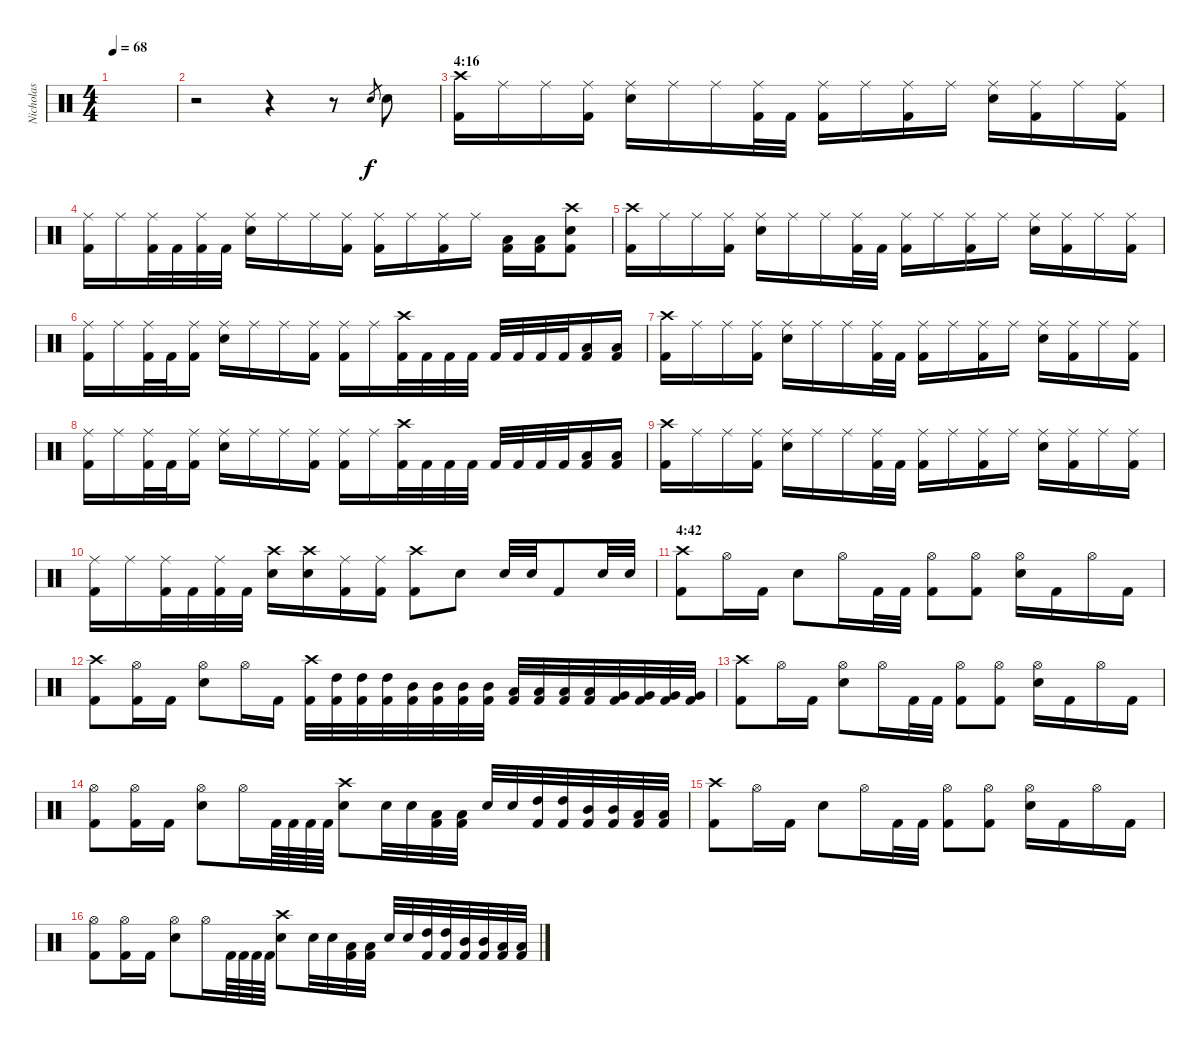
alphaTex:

\track ("Nicholas" "Nicholas") {instrument percussion}
\staff {score}
\articulation defaults
\ts (4 4)
\tempo 68
\clef neutral
\ks c
|
r.2 r.4 r.8 "Snare (hit) 2".8{gr} "Snare (hit) 2".8 |
\section ("" "4:16")
("Kick (hit) 2" "Crash high (hit)").16 "Ride (middle)".16 "Ride (middle)".16 ("Kick (hit) 2" "Ride (middle)").16 ("Snare (hit) 2" "Ride (middle)").16 "Ride (middle)".16 "Ride (middle)".16 ("Kick (hit) 2" "Ride (middle)").32 "Kick (hit) 2".32 ("Kick (hit) 2" "Ride (middle)").16 "Ride (middle)".16 ("Kick (hit) 2" "Ride (middle)").16 "Ride (middle)".16 ("Snare (hit) 2" "Ride (middle)").16 ("Kick (hit) 2" "Ride (middle)").16 "Ride (middle)".16 ("Kick (hit) 2" "Ride (middle)").16 |
("Kick (hit) 2" "Ride (middle)").16 "Ride (middle)".16 ("Kick (hit) 2" "Ride (middle)").32 "Kick (hit) 2".32 ("Kick (hit) 2" "Ride (middle)").32 "Kick (hit) 2".32 ("Snare (hit) 2" "Ride (middle)").16 "Ride (middle)".16 "Ride (middle)".16 ("Kick (hit) 2" "Ride (middle)").16 ("Kick (hit) 2" "Ride (middle)").16 "Ride (middle)".16 ("Kick (hit) 2" "Ride (middle)").16 "Ride (middle)".16 ("Kick (hit) 2" "Low Tom (hit)").16 ("Kick (hit) 2" "Low Tom (hit)").16 ("Kick (hit) 2" "Snare (hit) 2" "Crash high (hit)").8 |
("Kick (hit) 2" "Crash high (hit)").16 "Ride (middle)".16 "Ride (middle)".16 ("Kick (hit) 2" "Ride (middle)").16 ("Snare (hit) 2" "Ride (middle)").16 "Ride (middle)".16 "Ride (middle)".16 ("Kick (hit) 2" "Ride (middle)").32 "Kick (hit) 2".32 ("Kick (hit) 2" "Ride (middle)").16 "Ride (middle)".16 ("Kick (hit) 2" "Ride (middle)").16 "Ride (middle)".16 ("Snare (hit) 2" "Ride (middle)").16 ("Kick (hit) 2" "Ride (middle)").16 "Ride (middle)".16 ("Kick (hit) 2" "Ride (middle)").16 |
("Kick (hit) 2" "Ride (middle)").16 "Ride (middle)".16 ("Kick (hit) 2" "Ride (middle)").32 "Kick (hit) 2".32 ("Kick (hit) 2" "Ride (middle)").16 ("Snare (hit) 2" "Ride (middle)").16 "Ride (middle)".16 "Ride (middle)".16 ("Kick (hit) 2" "Ride (middle)").16 ("Kick (hit) 2" "Ride (middle)").16 "Ride (middle)".16 ("Kick (hit) 2" "Crash high (hit)").32 "Kick (hit) 2".32 "Kick (hit) 2".32 "Kick (hit) 2".32 "Kick (hit) 2".32 "Kick (hit) 2".32 "Kick (hit) 2".32 "Kick (hit) 2".32 ("Kick (hit) 2" "Low Tom (hit)").16 ("Kick (hit) 2" "Low Tom (hit)").16 |
("Kick (hit) 2" "Crash high (hit)").16 "Ride (middle)".16 "Ride (middle)".16 ("Kick (hit) 2" "Ride (middle)").16 ("Snare (hit) 2" "Ride (middle)").16 "Ride (middle)".16 "Ride (middle)".16 ("Kick (hit) 2" "Ride (middle)").32 "Kick (hit) 2".32 ("Kick (hit) 2" "Ride (middle)").16 "Ride (middle)".16 ("Kick (hit) 2" "Ride (middle)").16 "Ride (middle)".16 ("Snare (hit) 2" "Ride (middle)").16 ("Kick (hit) 2" "Ride (middle)").16 "Ride (middle)".16 ("Kick (hit) 2" "Ride (middle)").16 |
("Kick (hit) 2" "Ride (middle)").16 "Ride (middle)".16 ("Kick (hit) 2" "Ride (middle)").32 "Kick (hit) 2".32 ("Kick (hit) 2" "Ride (middle)").16 ("Snare (hit) 2" "Ride (middle)").16 "Ride (middle)".16 "Ride (middle)".16 ("Kick (hit) 2" "Ride (middle)").16 ("Kick (hit) 2" "Ride (middle)").16 "Ride (middle)".16 ("Kick (hit) 2" "Crash high (hit)").32 "Kick (hit) 2".32 "Kick (hit) 2".32 "Kick (hit) 2".32 "Kick (hit) 2".32 "Kick (hit) 2".32 "Kick (hit) 2".32 "Kick (hit) 2".32 ("Kick (hit) 2" "Low Tom (hit)").16 ("Kick (hit) 2" "Low Tom (hit)").16 |
("Kick (hit) 2" "Crash high (hit)").16 "Ride (middle)".16 "Ride (middle)".16 ("Kick (hit) 2" "Ride (middle)").16 ("Snare (hit) 2" "Ride (middle)").16 "Ride (middle)".16 "Ride (middle)".16 ("Kick (hit) 2" "Ride (middle)").32 "Kick (hit) 2".32 ("Kick (hit) 2" "Ride (middle)").16 "Ride (middle)".16 ("Kick (hit) 2" "Ride (middle)").16 "Ride (middle)".16 ("Snare (hit) 2" "Ride (middle)").16 ("Kick (hit) 2" "Ride (middle)").16 "Ride (middle)".16 ("Kick (hit) 2" "Ride (middle)").16 |
("Kick (hit) 2" "Ride (middle)").16 "Ride (middle)".16 ("Kick (hit) 2" "Ride (middle)").32 "Kick (hit) 2".32 ("Kick (hit) 2" "Ride (middle)").32 "Kick (hit) 2".32 ("Snare (hit) 2" "Crash high (hit)").16 ("Snare (hit) 2" "Crash high (hit)").16 ("Kick (hit) 2" "Ride (middle)").16 ("Kick (hit) 2" "Ride (middle)").16 ("Kick (hit) 2" "Crash high (hit)").8 "Snare (hit) 2".8 "Snare (hit) 2".32 "Snare (hit) 2".32 "Kick (hit) 2".8 "Snare (hit) 2".32 "Snare (hit) 2".32 |
\section ("" "4:42")
("Kick (hit) 2" "Crash high (hit)").8 "Hi-Hat (open)".16 "Kick (hit) 2".16 "Snare (hit) 2".8 "Hi-Hat (open)".16 "Kick (hit) 2".32 "Kick (hit) 2".32 ("Kick (hit) 2" "Hi-Hat (open)").8 ("Kick (hit) 2" "Hi-Hat (open)").8 ("Snare (hit) 2" "Hi-Hat (open)").16 "Kick (hit) 2".16 "Hi-Hat (open)".16 "Kick (hit) 2".16 |
("Kick (hit) 2" "Crash high (hit)").8 ("Kick (hit) 2" "Hi-Hat (open)").16 "Kick (hit) 2".16 ("Snare (hit) 2" "Hi-Hat (open)").8 "Hi-Hat (open)".16 "Kick (hit) 2".16 ("Kick (hit) 2" "Crash high (hit)").32 ("Kick (hit) 2" "High Tom (hit)").32 ("Kick (hit) 2" "High Tom (hit)").32 ("Kick (hit) 2" "High Tom (hit)").32 ("Kick (hit) 2" "Mid Tom (hit)").32 ("Kick (hit) 2" "Mid Tom (hit)").32 ("Kick (hit) 2" "Mid Tom (hit)").32 ("Kick (hit) 2" "Mid Tom (hit)").32 ("Kick (hit) 2" "Low Tom (hit)").32 ("Kick (hit) 2" "Low Tom (hit)").32 ("Kick (hit) 2" "Low Tom (hit)").32 ("Kick (hit) 2" "Low Tom (hit)").32 ("Kick (hit) 2" "Very Low Tom (hit)").32 ("Kick (hit) 2" "Very Low Tom (hit)").32 ("Kick (hit) 2" "Very Low Tom (hit)").32 ("Kick (hit) 2" "Very Low Tom (hit)").32 |
("Kick (hit) 2" "Crash high (hit)").8 "Hi-Hat (open)".16 "Kick (hit) 2".16 ("Snare (hit) 2" "Hi-Hat (open)").8 "Hi-Hat (open)".16 "Kick (hit) 2".32 "Kick (hit) 2".32 ("Kick (hit) 2" "Hi-Hat (open)").8 ("Kick (hit) 2" "Hi-Hat (open)").8 ("Snare (hit) 2" "Hi-Hat (open)").16 "Kick (hit) 2".16 "Hi-Hat (open)".16 "Kick (hit) 2".16 |
("Kick (hit) 2" "Hi-Hat (open)").8 ("Kick (hit) 2" "Hi-Hat (open)").16 "Kick (hit) 2".16 ("Snare (hit) 2" "Hi-Hat (open)").8 "Hi-Hat (open)".16 "Kick (hit) 2".64 "Kick (hit) 2".64 "Kick (hit) 2".64 "Kick (hit) 2".64 ("Snare (hit) 2" "Crash high (hit)").8 "Snare (hit) 2".32 "Snare (hit) 2".32 ("Kick (hit) 2" "Low Tom (hit)").32 ("Kick (hit) 2" "Low Tom (hit)").32 "Snare (hit) 2".32 "Snare (hit) 2".32 ("Kick (hit) 2" "High Tom (hit)").32 ("Kick (hit) 2" "High Tom (hit)").32 ("Kick (hit) 2" "Mid Tom (hit)").32 ("Kick (hit) 2" "Mid Tom (hit)").32 ("Kick (hit) 2" "Low Tom (hit)").32 ("Kick (hit) 2" "Low Tom (hit)").32 |
("Kick (hit) 2" "Crash high (hit)").8 "Hi-Hat (open)".16 "Kick (hit) 2".16 "Snare (hit) 2".8 "Hi-Hat (open)".16 "Kick (hit) 2".32 "Kick (hit) 2".32 ("Kick (hit) 2" "Hi-Hat (open)").8 ("Kick (hit) 2" "Hi-Hat (open)").8 ("Snare (hit) 2" "Hi-Hat (open)").16 "Kick (hit) 2".16 "Hi-Hat (open)".16 "Kick (hit) 2".16 |
("Kick (hit) 2" "Hi-Hat (open)").8 ("Kick (hit) 2" "Hi-Hat (open)").16 "Kick (hit) 2".16 ("Snare (hit) 2" "Hi-Hat (open)").8 "Hi-Hat (open)".16 "Kick (hit) 2".64 "Kick (hit) 2".64 "Kick (hit) 2".64 "Kick (hit) 2".64 ("Snare (hit) 2" "Crash high (hit)").8 "Snare (hit) 2".32 "Snare (hit) 2".32 ("Kick (hit) 2" "Low Tom (hit)").32 ("Kick (hit) 2" "Low Tom (hit)").32 "Snare (hit) 2".32 "Snare (hit) 2".32 ("Kick (hit) 2" "High Tom (hit)").32 ("Kick (hit) 2" "High Tom (hit)").32 ("Kick (hit) 2" "Mid Tom (hit)").32 ("Kick (hit) 2" "Mid Tom (hit)").32 ("Kick (hit) 2" "Low Tom (hit)").32 ("Kick (hit) 2" "Low Tom (hit)").32
